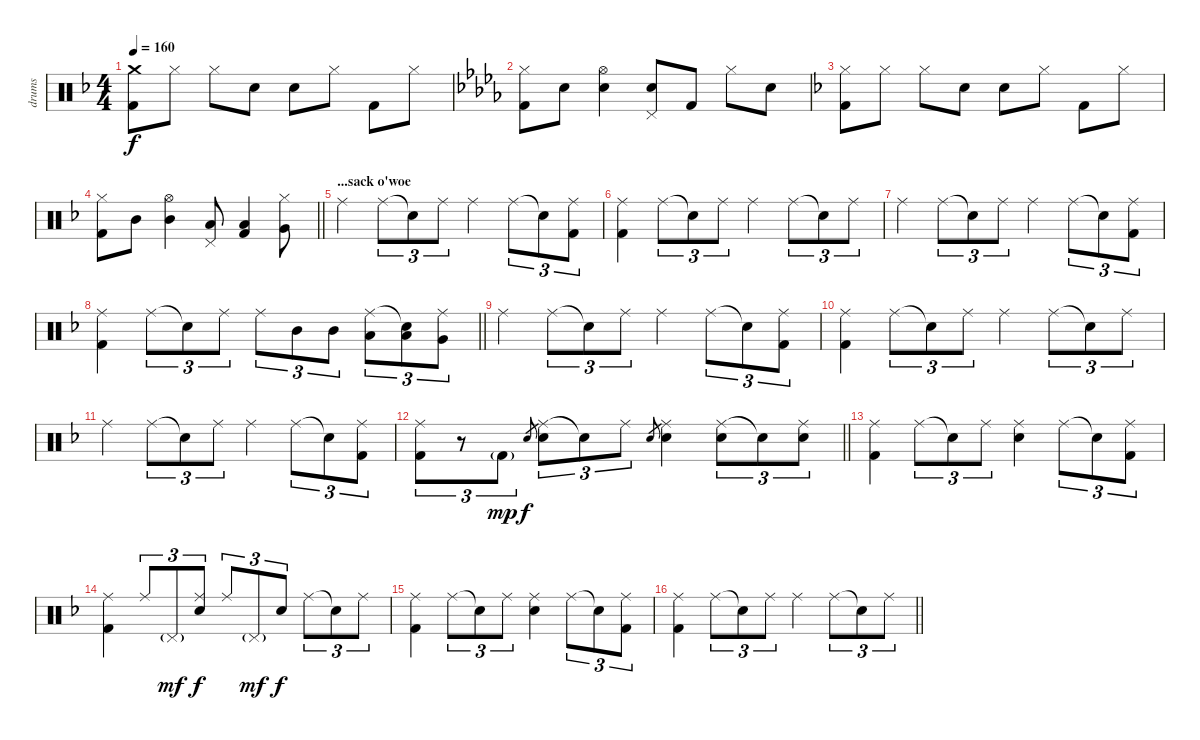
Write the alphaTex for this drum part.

\track ("drums" "drums") {instrument percussion}
\staff {score}
\articulation defaults
\ts (4 4)
\tempo 160
\clef neutral
\ks f
("Crash medium (hit)" "Kick (hit) 2").8{dy f} "Hi-Hat (closed)".8 "Hi-Hat (closed)".8 "Electric Snare (hit)".8 "Electric Snare (hit)".8 "Hi-Hat (closed)".8 "Kick (hit) 2".8 "Hi-Hat (closed)".8 |
\ks bbminor
("Hi-Hat (closed)" "Kick (hit) 2").8 "Electric Snare (hit)".8 ("Hi-Hat (open)" "Electric Snare (hit)").4 ("Pedal Hi-Hat (hit)" "Electric Snare (hit)").8 "Kick (hit) 2".8 "Hi-Hat (closed)".8 "Electric Snare (hit)".8 |
\ks f
("Hi-Hat (closed)" "Kick (hit) 2").8 "Hi-Hat (closed)".8 "Hi-Hat (closed)".8 "Electric Snare (hit)".8 "Electric Snare (hit)".8 "Hi-Hat (closed)".8 "Kick (hit) 2".8 "Hi-Hat (closed)".8 |
\barLineRight lightlight
("Hi-Hat (closed)" "Kick (hit) 2").8 "Mid Tom (hit)".8 ("Hi-Hat (open)" "Mid Tom (hit)").4 ("Pedal Hi-Hat (hit)" "Low Tom (hit)").8 ("Low Tom (hit)" "Kick (hit) 2").4 ("Hi-Hat (closed)" "Very Low Tom (hit)").8 |
\section ("" "...sack o'woe")
"Ride (middle)".4 "Ride (middle)".8{tu (3 2)} "Snare (hit)"{t}.8{tu (3 2)} "Ride (middle)".8{tu (3 2)} "Ride (middle)".4 "Ride (middle)".8{tu (3 2)} "Snare (hit)"{t}.8{tu (3 2)} ("Ride (middle)" "Kick (hit) 2").8{tu (3 2)} |
("Ride (middle)" "Kick (hit) 2").4 "Ride (middle)".8{tu (3 2)} "Snare (hit)"{t}.8{tu (3 2)} "Ride (middle)".8{tu (3 2)} "Ride (middle)".4 "Ride (middle)".8{tu (3 2)} "Snare (hit)"{t}.8{tu (3 2)} "Ride (middle)".8{tu (3 2)} |
"Ride (middle)".4 "Ride (middle)".8{tu (3 2)} "Snare (hit)"{t}.8{tu (3 2)} "Ride (middle)".8{tu (3 2)} "Ride (middle)".4 "Ride (middle)".8{tu (3 2)} "Snare (hit)"{t}.8{tu (3 2)} ("Ride (middle)" "Kick (hit) 2").8{tu (3 2)} |
\barLineRight lightlight
("Ride (middle)" "Kick (hit) 2").4 "Ride (middle)".8{tu (3 2)} "Snare (hit)"{t}.8{tu (3 2)} "Ride (middle)".8{tu (3 2)} "Ride (middle)".8{tu (3 2)} "Mid Tom (hit)".8{tu (3 2)} "Mid Tom (hit)".8{tu (3 2)} ("Ride (middle)" "Low Tom (hit)").8{tu (3 2)} ("Snare (hit)"{t} "Low Tom (hit)").8{tu (3 2)} ("Ride (middle)" "Very Low Tom (hit)").8{tu (3 2)} |
"Ride (middle)".4 "Ride (middle)".8{tu (3 2)} "Snare (hit)"{t}.8{tu (3 2)} "Ride (middle)".8{tu (3 2)} "Ride (middle)".4 "Ride (middle)".8{tu (3 2)} "Snare (hit)"{t}.8{tu (3 2)} ("Ride (middle)" "Kick (hit) 2").8{tu (3 2)} |
("Ride (middle)" "Kick (hit) 2").4 "Ride (middle)".8{tu (3 2)} "Snare (hit)"{t}.8{tu (3 2)} "Ride (middle)".8{tu (3 2)} "Ride (middle)".4 "Ride (middle)".8{tu (3 2)} "Snare (hit)"{t}.8{tu (3 2)} "Ride (middle)".8{tu (3 2)} |
"Ride (middle)".4 "Ride (middle)".8{tu (3 2)} "Snare (hit)"{t}.8{tu (3 2)} "Ride (middle)".8{tu (3 2)} "Ride (middle)".4 "Ride (middle)".8{tu (3 2)} "Snare (hit)"{t}.8{tu (3 2)} ("Ride (middle)" "Kick (hit) 2").8{tu (3 2)} |
\barLineRight lightlight
("Ride (middle)" "Kick (hit) 2").8{tu (3 2)} r.8{tu (3 2)} "Kick (hit) 2"{g}.8{tu (3 2) dy mp} "Electric Snare (hit)".8{gr dy f} ("Ride (middle)" "Electric Snare (hit)").8{tu (3 2)} "Snare (hit)"{t}.8{tu (3 2)} "Ride (middle)".8{tu (3 2)} "Electric Snare (hit)".8{gr} ("Ride (middle)" "Electric Snare (hit)").4 ("Ride (middle)" "Electric Snare (hit)").8{tu (3 2)} "Snare (hit)"{t}.8{tu (3 2)} ("Ride (middle)" "Electric Snare (hit)").8{tu (3 2)} |
("Ride (middle)" "Kick (hit) 2").4 "Ride (middle)".8{tu (3 2)} "Snare (hit)"{t}.8{tu (3 2)} "Ride (middle)".8{tu (3 2)} ("Ride (middle)" "Electric Snare (hit)").4 "Ride (middle)".8{tu (3 2)} "Snare (hit)"{t}.8{tu (3 2)} ("Ride (middle)" "Kick (hit) 2").8{tu (3 2)} |
("Ride (middle)" "Kick (hit) 2").4 "Ride (middle)".8{tu (3 2)} "Pedal Hi-Hat (hit)"{g}.8{tu (3 2) dy mf} ("Ride (middle)" "Electric Snare (hit)").8{tu (3 2) dy f} "Ride (middle)".8{tu (3 2)} "Pedal Hi-Hat (hit)"{g}.8{tu (3 2) dy mf} "Electric Snare (hit)".8{tu (3 2) dy f} "Ride (middle)".8{tu (3 2)} "Snare (hit)"{t}.8{tu (3 2)} "Ride (middle)".8{tu (3 2)} |
("Ride (middle)" "Kick (hit) 2").4 "Ride (middle)".8{tu (3 2)} "Snare (hit)"{t}.8{tu (3 2)} "Ride (middle)".8{tu (3 2)} ("Ride (middle)" "Electric Snare (hit)").4 "Ride (middle)".8{tu (3 2)} "Snare (hit)"{t}.8{tu (3 2)} ("Ride (middle)" "Kick (hit) 2").8{tu (3 2)} |
\barLineRight lightlight
("Ride (middle)" "Kick (hit) 2").4 "Ride (middle)".8{tu (3 2)} "Snare (hit)"{t}.8{tu (3 2)} "Ride (middle)".8{tu (3 2)} "Ride (middle)".4 "Ride (middle)".8{tu (3 2)} "Snare (hit)"{t}.8{tu (3 2)} "Ride (middle)".8{tu (3 2)}
